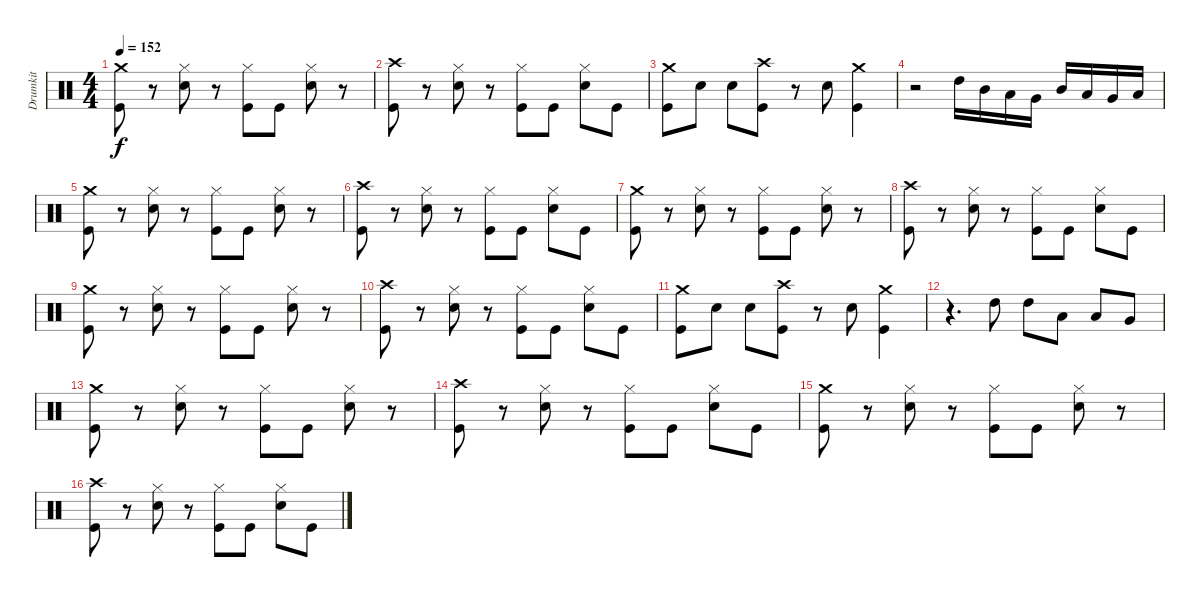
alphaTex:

\track ("Drumkit" "Drumkit") {instrument percussion}
\staff {score}
\articulation defaults
\ts (4 4)
\tempo 152
\clef neutral
\ks c
("Crash medium (hit)" "Kick (hit)").8{dy f} r.8 ("Hi-Hat (closed)" "Snare (hit) 2").8 r.8 ("Hi-Hat (closed)" "Kick (hit)").8 "Kick (hit)".8 ("Hi-Hat (closed)" "Snare (hit) 2").8 r.8 |
("Crash high (hit)" "Kick (hit)").8 r.8 ("Hi-Hat (closed)" "Snare (hit) 2").8 r.8 ("Hi-Hat (closed)" "Kick (hit)").8 "Kick (hit)".8 ("Hi-Hat (closed)" "Snare (hit) 2").8 "Kick (hit)".8 |
("Crash medium (hit)" "Kick (hit)").8 "Snare (hit) 2".8 "Snare (hit) 2".8 ("Crash high (hit)" "Kick (hit)").8 r.8 "Snare (hit) 2".8 ("Crash medium (hit)" "Kick (hit)").4 |
r.2 "High Tom (hit)".16 "Mid Tom (hit)".16 "Low Tom (hit)".16 "Very Low Tom (hit)".16 "Mid Tom (hit)".16 "Low Tom (hit)".16 "Very Low Tom (hit)".16 "Low Floor Tom (hit)".16 |
("Crash medium (hit)" "Kick (hit)").8 r.8 ("Hi-Hat (closed)" "Snare (hit) 2").8 r.8 ("Hi-Hat (closed)" "Kick (hit)").8 "Kick (hit)".8 ("Hi-Hat (closed)" "Snare (hit) 2").8 r.8 |
("Crash high (hit)" "Kick (hit)").8 r.8 ("Hi-Hat (closed)" "Snare (hit) 2").8 r.8 ("Hi-Hat (closed)" "Kick (hit)").8 "Kick (hit)".8 ("Hi-Hat (closed)" "Snare (hit) 2").8 "Kick (hit)".8 |
("Crash medium (hit)" "Kick (hit)").8 r.8 ("Hi-Hat (closed)" "Snare (hit) 2").8 r.8 ("Hi-Hat (closed)" "Kick (hit)").8 "Kick (hit)".8 ("Hi-Hat (closed)" "Snare (hit) 2").8 r.8 |
("Crash high (hit)" "Kick (hit)").8 r.8 ("Hi-Hat (closed)" "Snare (hit) 2").8 r.8 ("Hi-Hat (closed)" "Kick (hit)").8 "Kick (hit)".8 ("Hi-Hat (closed)" "Snare (hit) 2").8 "Kick (hit)".8 |
("Crash medium (hit)" "Kick (hit)").8 r.8 ("Hi-Hat (closed)" "Snare (hit) 2").8 r.8 ("Hi-Hat (closed)" "Kick (hit)").8 "Kick (hit)".8 ("Hi-Hat (closed)" "Snare (hit) 2").8 r.8 |
("Crash high (hit)" "Kick (hit)").8 r.8 ("Hi-Hat (closed)" "Snare (hit) 2").8 r.8 ("Hi-Hat (closed)" "Kick (hit)").8 "Kick (hit)".8 ("Hi-Hat (closed)" "Snare (hit) 2").8 "Kick (hit)".8 |
("Crash medium (hit)" "Kick (hit)").8 "Snare (hit) 2".8 "Snare (hit) 2".8 ("Crash high (hit)" "Kick (hit)").8 r.8 "Snare (hit) 2".8 ("Crash medium (hit)" "Kick (hit)").4 |
r.4{d} "High Tom (hit)".8 "High Tom (hit)".8 "Low Tom (hit)".8 "Low Tom (hit)".8 "Very Low Tom (hit)".8 |
("Crash medium (hit)" "Kick (hit)").8 r.8 ("Hi-Hat (closed)" "Snare (hit) 2").8 r.8 ("Hi-Hat (closed)" "Kick (hit)").8 "Kick (hit)".8 ("Hi-Hat (closed)" "Snare (hit) 2").8 r.8 |
("Crash high (hit)" "Kick (hit)").8 r.8 ("Hi-Hat (closed)" "Snare (hit) 2").8 r.8 ("Hi-Hat (closed)" "Kick (hit)").8 "Kick (hit)".8 ("Hi-Hat (closed)" "Snare (hit) 2").8 "Kick (hit)".8 |
("Crash medium (hit)" "Kick (hit)").8 r.8 ("Hi-Hat (closed)" "Snare (hit) 2").8 r.8 ("Hi-Hat (closed)" "Kick (hit)").8 "Kick (hit)".8 ("Hi-Hat (closed)" "Snare (hit) 2").8 r.8 |
("Crash high (hit)" "Kick (hit)").8 r.8 ("Hi-Hat (closed)" "Snare (hit) 2").8 r.8 ("Hi-Hat (closed)" "Kick (hit)").8 "Kick (hit)".8 ("Hi-Hat (closed)" "Snare (hit) 2").8 "Kick (hit)".8
